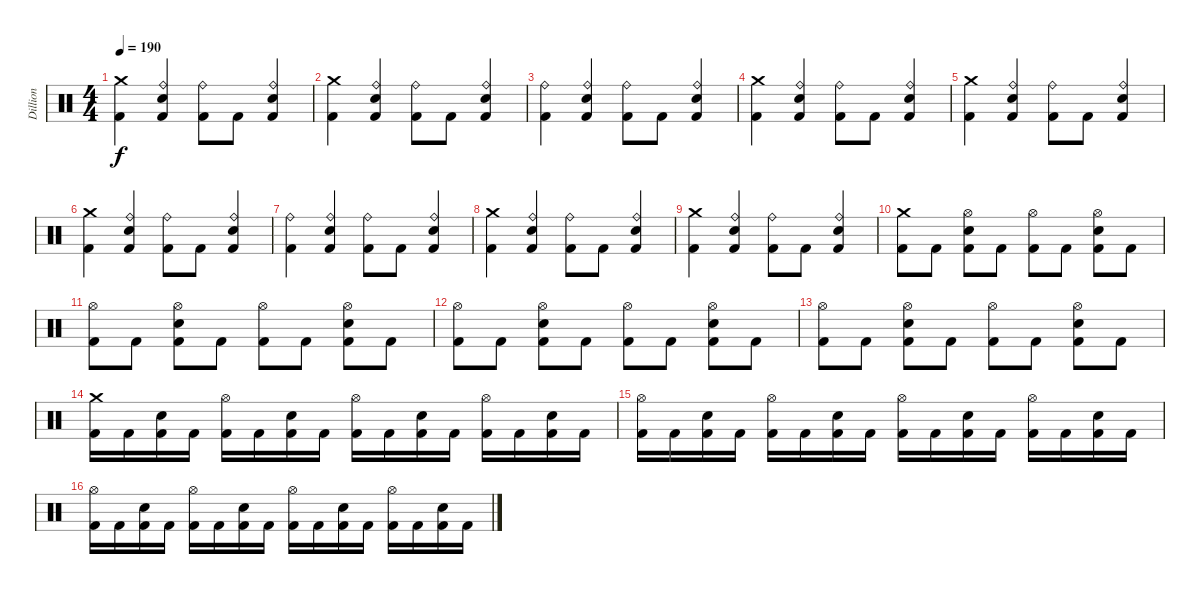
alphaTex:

\track ("Dillion" "Dillion") {instrument percussion}
\staff {score}
\articulation defaults
\ts (4 4)
\tempo 190
\clef neutral
\ks c
("Crash medium (hit)" "Kick (hit) 2").4{dy f} ("Ride (bell)" "Electric Snare (hit)" "Kick (hit) 2").4 ("Ride (bell)" "Kick (hit) 2").8 "Kick (hit) 2".8 ("Ride (bell)" "Electric Snare (hit)" "Kick (hit) 2").4 |
("Crash medium (hit)" "Kick (hit) 2").4 ("Ride (bell)" "Electric Snare (hit)" "Kick (hit) 2").4 ("Ride (bell)" "Kick (hit) 2").8 "Kick (hit) 2".8 ("Ride (bell)" "Electric Snare (hit)" "Kick (hit) 2").4 |
("Ride (bell)" "Kick (hit) 2").4 ("Ride (bell)" "Electric Snare (hit)" "Kick (hit) 2").4 ("Ride (bell)" "Kick (hit) 2").8 "Kick (hit) 2".8 ("Ride (bell)" "Electric Snare (hit)" "Kick (hit) 2").4 |
("Crash medium (hit)" "Kick (hit) 2").4 ("Ride (bell)" "Electric Snare (hit)" "Kick (hit) 2").4 ("Ride (bell)" "Kick (hit) 2").8 "Kick (hit) 2".8 ("Ride (bell)" "Electric Snare (hit)" "Kick (hit) 2").4 |
("Crash medium (hit)" "Kick (hit) 2").4 ("Ride (bell)" "Electric Snare (hit)" "Kick (hit) 2").4 ("Ride (bell)" "Kick (hit) 2").8 "Kick (hit) 2".8 ("Ride (bell)" "Electric Snare (hit)" "Kick (hit) 2").4 |
("Crash medium (hit)" "Kick (hit) 2").4 ("Ride (bell)" "Electric Snare (hit)" "Kick (hit) 2").4 ("Ride (bell)" "Kick (hit) 2").8 "Kick (hit) 2".8 ("Ride (bell)" "Electric Snare (hit)" "Kick (hit) 2").4 |
("Ride (bell)" "Kick (hit) 2").4 ("Ride (bell)" "Electric Snare (hit)" "Kick (hit) 2").4 ("Ride (bell)" "Kick (hit) 2").8 "Kick (hit) 2".8 ("Ride (bell)" "Electric Snare (hit)" "Kick (hit) 2").4 |
("Crash medium (hit)" "Kick (hit) 2").4 ("Ride (bell)" "Electric Snare (hit)" "Kick (hit) 2").4 ("Ride (bell)" "Kick (hit) 2").8 "Kick (hit) 2".8 ("Ride (bell)" "Electric Snare (hit)" "Kick (hit) 2").4 |
("Crash medium (hit)" "Kick (hit) 2").4 ("Ride (bell)" "Electric Snare (hit)" "Kick (hit) 2").4 ("Ride (bell)" "Kick (hit) 2").8 "Kick (hit) 2".8 ("Ride (bell)" "Electric Snare (hit)" "Kick (hit) 2").4 |
("Crash medium (hit)" "Kick (hit) 2").8 "Kick (hit) 2".8 ("Hi-Hat (open)" "Electric Snare (hit)" "Kick (hit) 2").8 "Kick (hit) 2".8 ("Hi-Hat (open)" "Kick (hit) 2").8 "Kick (hit) 2".8 ("Hi-Hat (open)" "Electric Snare (hit)" "Kick (hit) 2").8 "Kick (hit) 2".8 |
("Hi-Hat (open)" "Kick (hit) 2").8 "Kick (hit) 2".8 ("Hi-Hat (open)" "Electric Snare (hit)" "Kick (hit) 2").8 "Kick (hit) 2".8 ("Hi-Hat (open)" "Kick (hit) 2").8 "Kick (hit) 2".8 ("Hi-Hat (open)" "Electric Snare (hit)" "Kick (hit) 2").8 "Kick (hit) 2".8 |
("Hi-Hat (open)" "Kick (hit) 2").8 "Kick (hit) 2".8 ("Hi-Hat (open)" "Electric Snare (hit)" "Kick (hit) 2").8 "Kick (hit) 2".8 ("Hi-Hat (open)" "Kick (hit) 2").8 "Kick (hit) 2".8 ("Hi-Hat (open)" "Electric Snare (hit)" "Kick (hit) 2").8 "Kick (hit) 2".8 |
("Hi-Hat (open)" "Kick (hit) 2").8 "Kick (hit) 2".8 ("Hi-Hat (open)" "Electric Snare (hit)" "Kick (hit) 2").8 "Kick (hit) 2".8 ("Hi-Hat (open)" "Kick (hit) 2").8 "Kick (hit) 2".8 ("Hi-Hat (open)" "Electric Snare (hit)" "Kick (hit) 2").8 "Kick (hit) 2".8 |
("Crash medium (hit)" "Kick (hit) 2").16 "Kick (hit) 2".16 ("Electric Snare (hit)" "Kick (hit) 2").16 "Kick (hit) 2".16 ("Hi-Hat (open)" "Kick (hit) 2").16 "Kick (hit) 2".16 ("Electric Snare (hit)" "Kick (hit) 2").16 "Kick (hit) 2".16 ("Hi-Hat (open)" "Kick (hit) 2").16 "Kick (hit) 2".16 ("Electric Snare (hit)" "Kick (hit) 2").16 "Kick (hit) 2".16 ("Hi-Hat (open)" "Kick (hit) 2").16 "Kick (hit) 2".16 ("Electric Snare (hit)" "Kick (hit) 2").16 "Kick (hit) 2".16 |
("Hi-Hat (open)" "Kick (hit) 2").16 "Kick (hit) 2".16 ("Electric Snare (hit)" "Kick (hit) 2").16 "Kick (hit) 2".16 ("Hi-Hat (open)" "Kick (hit) 2").16 "Kick (hit) 2".16 ("Electric Snare (hit)" "Kick (hit) 2").16 "Kick (hit) 2".16 ("Hi-Hat (open)" "Kick (hit) 2").16 "Kick (hit) 2".16 ("Electric Snare (hit)" "Kick (hit) 2").16 "Kick (hit) 2".16 ("Hi-Hat (open)" "Kick (hit) 2").16 "Kick (hit) 2".16 ("Electric Snare (hit)" "Kick (hit) 2").16 "Kick (hit) 2".16 |
("Hi-Hat (open)" "Kick (hit) 2").16 "Kick (hit) 2".16 ("Electric Snare (hit)" "Kick (hit) 2").16 "Kick (hit) 2".16 ("Hi-Hat (open)" "Kick (hit) 2").16 "Kick (hit) 2".16 ("Electric Snare (hit)" "Kick (hit) 2").16 "Kick (hit) 2".16 ("Hi-Hat (open)" "Kick (hit) 2").16 "Kick (hit) 2".16 ("Electric Snare (hit)" "Kick (hit) 2").16 "Kick (hit) 2".16 ("Hi-Hat (open)" "Kick (hit) 2").16 "Kick (hit) 2".16 ("Electric Snare (hit)" "Kick (hit) 2").16 "Kick (hit) 2".16
